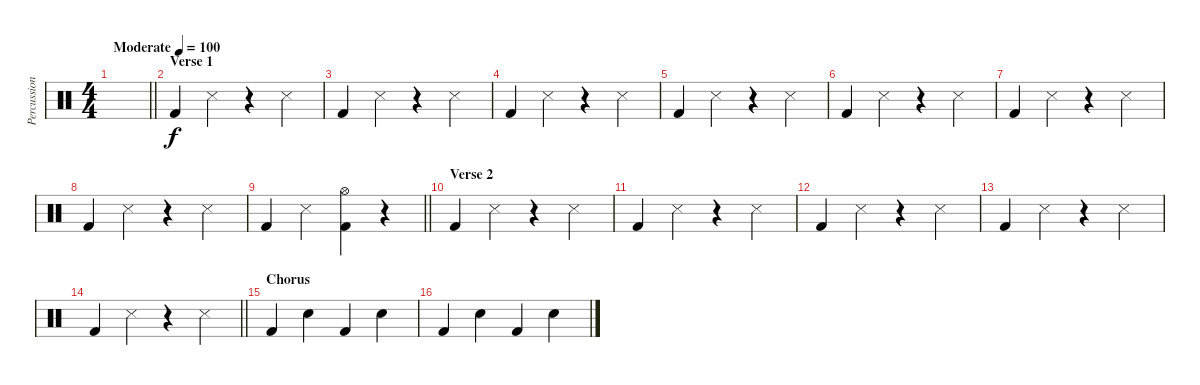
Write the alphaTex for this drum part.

\track ("Percussion" "Percussion") {instrument percussion}
\staff {score}
\articulation defaults
\ts (4 4)
\tempo (100 "Moderate")
\clef neutral
\barLineRight lightlight
\ks c
|
\section ("" "Verse 1")
"Kick (hit) 2".4 "Snare (side stick) 3".4 r.4 "Snare (side stick) 3".4 |
"Kick (hit) 2".4 "Snare (side stick) 3".4 r.4 "Snare (side stick) 3".4 |
"Kick (hit) 2".4 "Snare (side stick) 3".4 r.4 "Snare (side stick) 3".4 |
"Kick (hit) 2".4 "Snare (side stick) 3".4 r.4 "Snare (side stick) 3".4 |
"Kick (hit) 2".4 "Snare (side stick) 3".4 r.4 "Snare (side stick) 3".4 |
"Kick (hit) 2".4 "Snare (side stick) 3".4 r.4 "Snare (side stick) 3".4 |
"Kick (hit) 2".4 "Snare (side stick) 3".4 r.4 "Snare (side stick) 3".4 |
\barLineRight lightlight "Kick (hit) 2".4 "Snare (side stick) 3".4
("Hi-Hat (open)" "Kick (hit) 2").4 r.4 |
\section ("" "Verse 2")
"Kick (hit) 2".4 "Snare (side stick) 3".4 r.4 "Snare (side stick) 3".4 |
"Kick (hit) 2".4 "Snare (side stick) 3".4 r.4 "Snare (side stick) 3".4 |
"Kick (hit) 2".4 "Snare (side stick) 3".4 r.4 "Snare (side stick) 3".4 |
"Kick (hit) 2".4 "Snare (side stick) 3".4 r.4 "Snare (side stick) 3".4 |
\barLineRight lightlight "Kick (hit) 2".4 "Snare (side stick) 3".4
r.4 "Snare (side stick) 3".4 |
\section ("" "Chorus")
"Kick (hit) 2".4 "Snare (hit) 2".4 "Kick (hit) 2".4 "Snare (hit) 2".4 |
"Kick (hit) 2".4 "Snare (hit) 2".4 "Kick (hit) 2".4 "Snare (hit) 2".4
